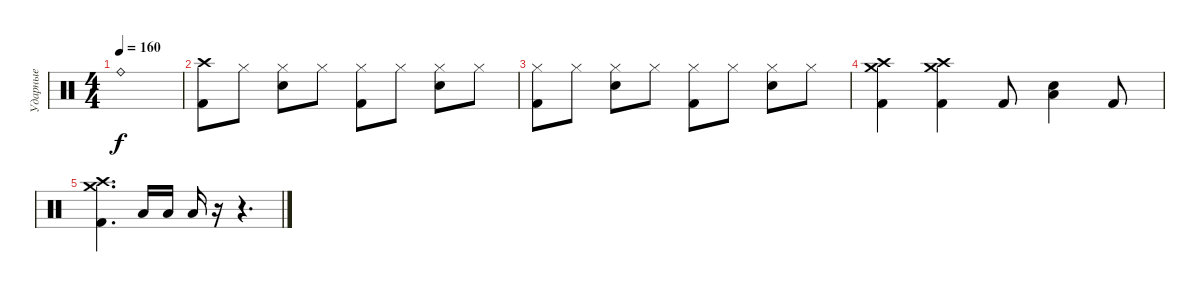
\track ("Ударные" "Ударные") {instrument percussion}
\staff {score}
\articulation defaults
\ts (4 4)
\tempo 160
\clef neutral
\ks c "Ride (bell)".1{dy f}
|
("Crash high (hit)" "Kick (hit) 2").8 "Hi-Hat (closed)".8 ("Hi-Hat (closed)" "Snare (hit) 2").8 "Hi-Hat (closed)".8 ("Hi-Hat (closed)" "Kick (hit) 2").8 "Hi-Hat (closed)".8 ("Hi-Hat (closed)" "Snare (hit) 2").8 "Hi-Hat (closed)".8 |
("Hi-Hat (closed)" "Kick (hit) 2").8 "Hi-Hat (closed)".8 ("Hi-Hat (closed)" "Snare (hit) 2").8 "Hi-Hat (closed)".8 ("Hi-Hat (closed)" "Kick (hit) 2").8 "Hi-Hat (closed)".8 ("Hi-Hat (closed)" "Snare (hit) 2").8 "Hi-Hat (closed)".8 |
("Crash high (hit)" "Crash medium (hit)" "Kick (hit) 2").4 ("Crash high (hit)" "Crash medium (hit)" "Kick (hit) 2").4 "Kick (hit) 2".8 ("Snare (hit) 2" "Low Floor Tom (hit)").4 "Kick (hit) 2".8 |
("Crash high (hit)" "Crash medium (hit)" "Kick (hit) 2").4{d} "Low Floor Tom (hit)".16 "Low Floor Tom (hit)".16 "Low Floor Tom (hit)".16 r.16 r.4{d}
